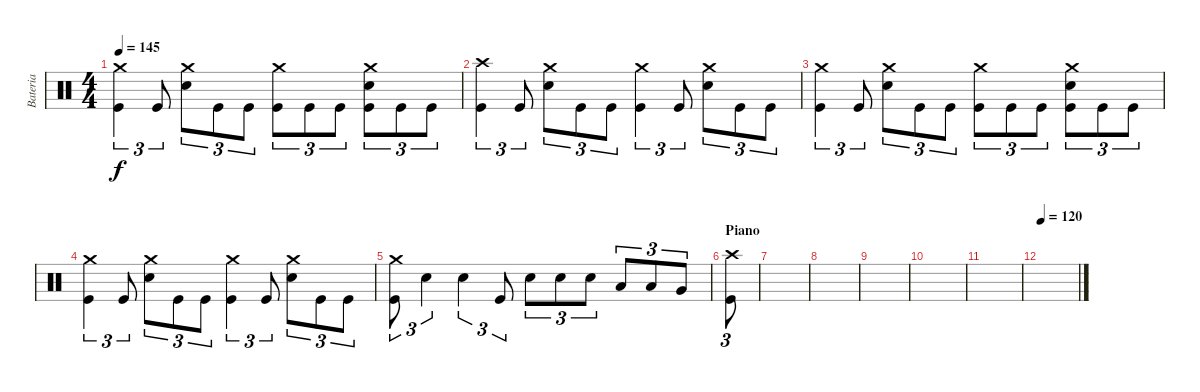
\track ("Bateria" "Bateria") {instrument percussion}
\staff {score}
\articulation defaults
\ts (4 4)
\tempo 145
\clef neutral
\ks c
("Crash medium (hit)" "Kick (hit)").4{tu (3 2) dy f} "Kick (hit)".8{tu (3 2)} ("Crash medium (hit)" "Snare (hit) 2").8{tu (3 2)} "Kick (hit)".8{tu (3 2)} "Kick (hit)".8{tu (3 2)} ("Crash medium (hit)" "Kick (hit)").8{tu (3 2)} "Kick (hit)".8{tu (3 2)} "Kick (hit)".8{tu (3 2)} ("Crash medium (hit)" "Snare (hit) 2" "Kick (hit)").8{tu (3 2)} "Kick (hit)".8{tu (3 2)} "Kick (hit)".8{tu (3 2)} |
("Crash high (hit)" "Kick (hit)").4{tu (3 2)} "Kick (hit)".8{tu (3 2)} ("Crash medium (hit)" "Snare (hit) 2").8{tu (3 2)} "Kick (hit)".8{tu (3 2)} "Kick (hit)".8{tu (3 2)} ("Crash medium (hit)" "Kick (hit)").4{tu (3 2)} "Kick (hit)".8{tu (3 2)} ("Crash medium (hit)" "Snare (hit) 2").8{tu (3 2)} "Kick (hit)".8{tu (3 2)} "Kick (hit)".8{tu (3 2)} |
("Crash medium (hit)" "Kick (hit)").4{tu (3 2)} "Kick (hit)".8{tu (3 2)} ("Crash medium (hit)" "Snare (hit) 2").8{tu (3 2)} "Kick (hit)".8{tu (3 2)} "Kick (hit)".8{tu (3 2)} ("Crash medium (hit)" "Kick (hit)").8{tu (3 2)} "Kick (hit)".8{tu (3 2)} "Kick (hit)".8{tu (3 2)} ("Crash medium (hit)" "Snare (hit) 2" "Kick (hit)").8{tu (3 2)} "Kick (hit)".8{tu (3 2)} "Kick (hit)".8{tu (3 2)} |
("Crash medium (hit)" "Kick (hit)").4{tu (3 2)} "Kick (hit)".8{tu (3 2)} ("Crash medium (hit)" "Snare (hit) 2").8{tu (3 2)} "Kick (hit)".8{tu (3 2)} "Kick (hit)".8{tu (3 2)} ("Crash medium (hit)" "Kick (hit)").4{tu (3 2)} "Kick (hit)".8{tu (3 2)} ("Crash medium (hit)" "Snare (hit) 2").8{tu (3 2)} "Kick (hit)".8{tu (3 2)} "Kick (hit)".8{tu (3 2)} |
("Crash medium (hit)" "Kick (hit)").8{tu (3 2)} "Snare (hit) 2".4{tu (3 2)} "Snare (hit) 2".4{tu (3 2)} "Kick (hit)".8{tu (3 2)} "Snare (hit) 2".8{tu (3 2)} "Snare (hit) 2".8{tu (3 2)} "Snare (hit) 2".8{tu (3 2)} "Low Tom (hit)".8{tu (3 2)} "Low Tom (hit)".8{tu (3 2)} "Very Low Tom (hit)".8{tu (3 2)} |
\section ("" "Piano")
("Crash high (hit)" "Kick (hit)").8{tu (3 2)} |
|
|
|
|
|
\tempo 120
